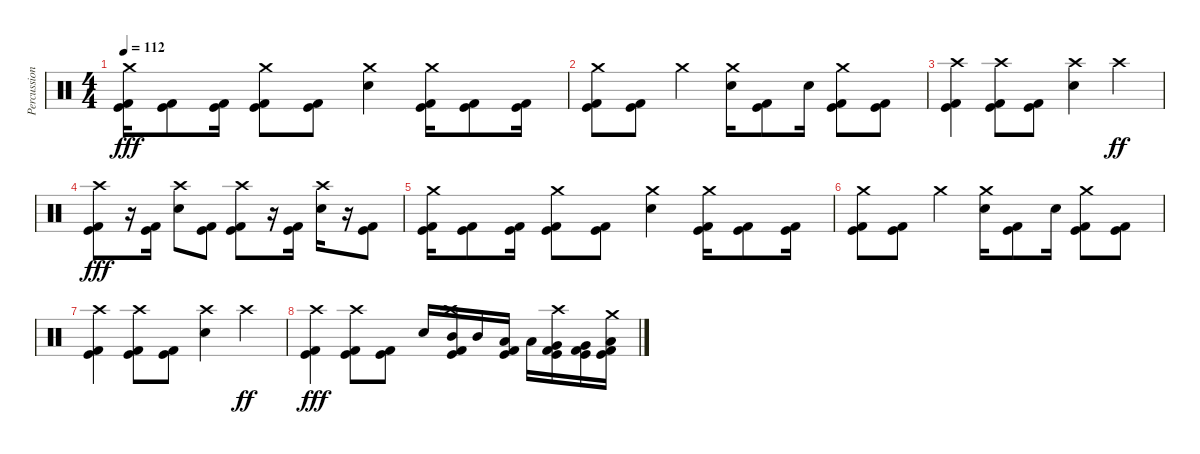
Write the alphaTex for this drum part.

\track ("Percussion" "Percussion") {instrument percussion}
\staff {score}
\articulation defaults
\ts (4 4)
\tempo 112
\clef neutral
\ks c
("Crash medium (hit)" "Kick (hit)" "Kick (hit) 2").16{dy fff} ("Kick (hit)" "Kick (hit) 2").8 ("Kick (hit)" "Kick (hit) 2").16 ("Crash medium (hit)" "Kick (hit)" "Kick (hit) 2").8 ("Kick (hit)" "Kick (hit) 2").8 ("Crash medium (hit)" "Electric Snare (hit)").4 ("Crash medium (hit)" "Kick (hit)" "Kick (hit) 2").16 ("Kick (hit)" "Kick (hit) 2").8 ("Kick (hit)" "Kick (hit) 2").16 |
("Crash medium (hit)" "Kick (hit)" "Kick (hit) 2").8 ("Kick (hit)" "Kick (hit) 2").8 "Crash medium (hit)".4 ("Crash medium (hit)" "Electric Snare (hit)").16 ("Kick (hit)" "Kick (hit) 2").8 "Electric Snare (hit)".16 ("Crash medium (hit)" "Kick (hit)" "Kick (hit) 2").8 ("Kick (hit)" "Kick (hit) 2").8 |
("Crash high (hit)" "Kick (hit)" "Kick (hit) 2").4 ("Crash high (hit)" "Kick (hit)" "Kick (hit) 2").8 ("Kick (hit)" "Kick (hit) 2").8 ("Crash high (hit)" "Electric Snare (hit)").4 "Crash high (hit)".4{dy ff} |
("Crash high (hit)" "Kick (hit)" "Kick (hit) 2").8{dy fff} r.16 ("Kick (hit)" "Kick (hit) 2").16 ("Crash high (hit)" "Electric Snare (hit)").8 ("Kick (hit)" "Kick (hit) 2").8 ("Crash high (hit)" "Kick (hit)" "Kick (hit) 2").8 r.16 ("Kick (hit)" "Kick (hit) 2").16 ("Crash high (hit)" "Electric Snare (hit)").16 r.16 ("Kick (hit)" "Kick (hit) 2").8 |
("Crash medium (hit)" "Kick (hit)" "Kick (hit) 2").16 ("Kick (hit)" "Kick (hit) 2").8 ("Kick (hit)" "Kick (hit) 2").16 ("Crash medium (hit)" "Kick (hit)" "Kick (hit) 2").8 ("Kick (hit)" "Kick (hit) 2").8 ("Crash medium (hit)" "Electric Snare (hit)").4 ("Crash medium (hit)" "Kick (hit)" "Kick (hit) 2").16 ("Kick (hit)" "Kick (hit) 2").8 ("Kick (hit)" "Kick (hit) 2").16 |
("Crash medium (hit)" "Kick (hit)" "Kick (hit) 2").8 ("Kick (hit)" "Kick (hit) 2").8 "Crash medium (hit)".4 ("Crash medium (hit)" "Electric Snare (hit)").16 ("Kick (hit)" "Kick (hit) 2").8 "Electric Snare (hit)".16 ("Crash medium (hit)" "Kick (hit)" "Kick (hit) 2").8 ("Kick (hit)" "Kick (hit) 2").8 |
("Crash high (hit)" "Kick (hit)" "Kick (hit) 2").4 ("Crash high (hit)" "Kick (hit)" "Kick (hit) 2").8 ("Kick (hit)" "Kick (hit) 2").8 ("Crash high (hit)" "Electric Snare (hit)").4 "Crash high (hit)".4{dy ff} |
("Crash high (hit)" "Kick (hit)" "Kick (hit) 2").4{dy fff} ("Crash high (hit)" "Kick (hit)" "Kick (hit) 2").8 ("Kick (hit)" "Kick (hit) 2").8 "Electric Snare (hit)".16 ("Crash high (hit)" "Mid Tom (hit)" "Kick (hit)" "Kick (hit) 2").16 "Mid Tom (hit)".16 ("Low Tom (hit)" "Kick (hit)" "Kick (hit) 2").16 "Low Tom (hit)".16 ("Crash high (hit)" "Very Low Tom (hit)" "Kick (hit)" "Kick (hit) 2").16 ("Very Low Tom (hit)" "Kick (hit)" "Kick (hit) 2").16 ("Crash medium (hit)" "Low Floor Tom (hit)" "Kick (hit)" "Kick (hit) 2").16
